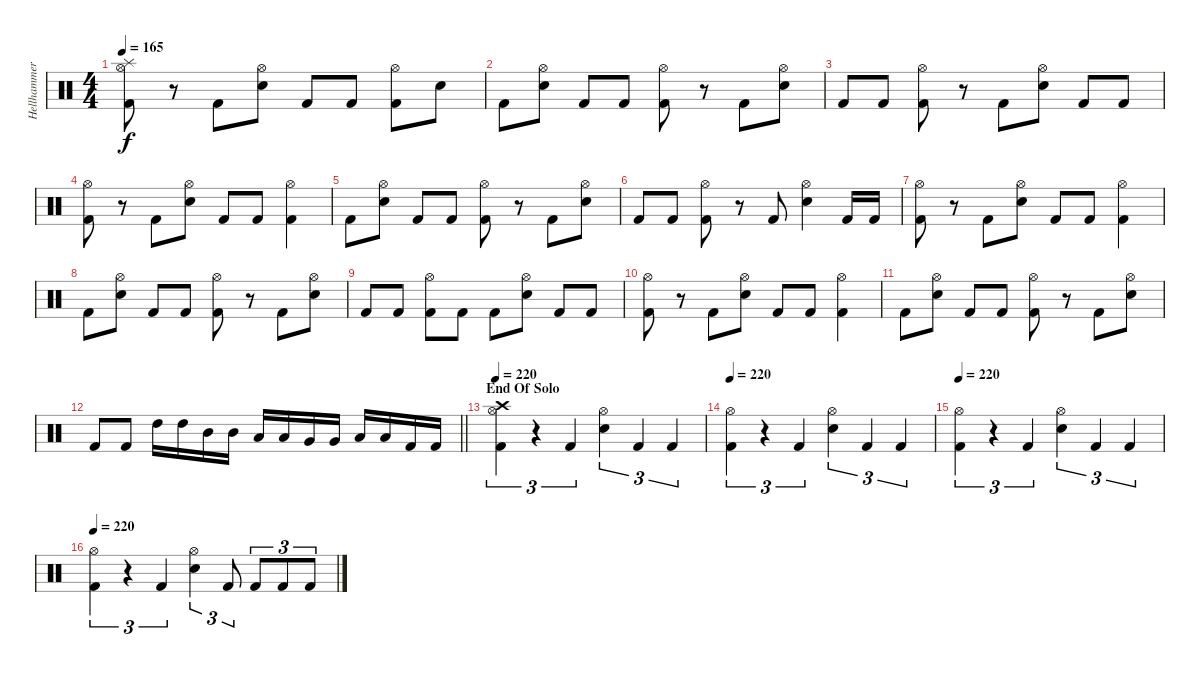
\track ("Hellhammer" "Hellhammer") {instrument percussion}
\staff {score}
\articulation defaults
\ts (4 4)
\tempo 165
\clef neutral
\ks c
("Splash (hit)" "Hi-Hat (open)" "Kick (hit) 2").8{dy f} r.8 "Kick (hit) 2".8 ("Hi-Hat (open)" "Snare (hit) 2").8 "Kick (hit) 2".8 "Kick (hit) 2".8 ("Hi-Hat (open)" "Kick (hit) 2").8 "Snare (hit)".8 |
"Kick (hit) 2".8 ("Hi-Hat (open)" "Snare (hit) 2").8 "Kick (hit) 2".8 "Kick (hit) 2".8 ("Hi-Hat (open)" "Kick (hit) 2").8 r.8 "Kick (hit) 2".8 ("Hi-Hat (open)" "Snare (hit) 2").8 |
"Kick (hit) 2".8 "Kick (hit) 2".8 ("Hi-Hat (open)" "Kick (hit) 2").8 r.8 "Kick (hit) 2".8 ("Hi-Hat (open)" "Snare (hit) 2").8 "Kick (hit) 2".8 "Kick (hit) 2".8 |
("Hi-Hat (open)" "Kick (hit) 2").8 r.8 "Kick (hit) 2".8 ("Hi-Hat (open)" "Snare (hit) 2").8 "Kick (hit) 2".8 "Kick (hit) 2".8 ("Hi-Hat (open)" "Kick (hit) 2").4 |
"Kick (hit) 2".8 ("Hi-Hat (open)" "Snare (hit) 2").8 "Kick (hit) 2".8 "Kick (hit) 2".8 ("Hi-Hat (open)" "Kick (hit) 2").8 r.8 "Kick (hit) 2".8 ("Hi-Hat (open)" "Snare (hit) 2").8 |
"Kick (hit) 2".8 "Kick (hit) 2".8 ("Hi-Hat (open)" "Kick (hit) 2").8 r.8 "Kick (hit) 2".8 ("Hi-Hat (open)" "Snare (hit) 2").4 "Kick (hit) 2".16 "Kick (hit) 2".16 |
("Hi-Hat (open)" "Kick (hit) 2").8 r.8 "Kick (hit) 2".8 ("Hi-Hat (open)" "Snare (hit) 2").8 "Kick (hit) 2".8 "Kick (hit) 2".8 ("Hi-Hat (open)" "Kick (hit) 2").4 |
"Kick (hit) 2".8 ("Hi-Hat (open)" "Snare (hit) 2").8 "Kick (hit) 2".8 "Kick (hit) 2".8 ("Hi-Hat (open)" "Kick (hit) 2").8 r.8 "Kick (hit) 2".8 ("Hi-Hat (open)" "Snare (hit) 2").8 |
"Kick (hit) 2".8 "Kick (hit) 2".8 ("Hi-Hat (open)" "Kick (hit) 2").8 "Kick (hit) 2".8 "Kick (hit) 2".8 ("Hi-Hat (open)" "Snare (hit) 2").8 "Kick (hit) 2".8 "Kick (hit) 2".8 |
("Hi-Hat (open)" "Kick (hit) 2").8 r.8 "Kick (hit) 2".8 ("Hi-Hat (open)" "Snare (hit) 2").8 "Kick (hit) 2".8 "Kick (hit) 2".8 ("Hi-Hat (open)" "Kick (hit) 2").4 |
"Kick (hit) 2".8 ("Hi-Hat (open)" "Snare (hit) 2").8 "Kick (hit) 2".8 "Kick (hit) 2".8 ("Hi-Hat (open)" "Kick (hit) 2").8 r.8 "Kick (hit) 2".8 ("Hi-Hat (open)" "Snare (hit) 2").8 |
\barLineRight lightlight "Kick (hit) 2".8 "Kick (hit) 2".8 "High Tom (hit)".16 "High Tom (hit)".16 "Mid Tom (hit)".16 "Mid Tom (hit)".16 "Low Tom (hit)".16 "Low Tom (hit)".16 "Very Low Tom (hit)".16 "Very Low Tom (hit)".16 "Low Floor Tom (hit)".16 "Low Floor Tom (hit)".16 "Kick (hit) 2".16 "Kick (hit) 2".16
|
\section ("" "End Of Solo")
\tempo 220
("Crash high (hit)" "Hi-Hat (open)" "Kick (hit) 2").4{tu (3 2)} r.4{tu (3 2)} "Kick (hit) 2".4{tu (3 2)} ("Hi-Hat (open)" "Snare (hit) 2").4{tu (3 2)} "Kick (hit) 2".4{tu (3 2)} "Kick (hit) 2".4{tu (3 2)} |
\tempo 220
("Hi-Hat (open)" "Kick (hit) 2").4{tu (3 2)} r.4{tu (3 2)} "Kick (hit) 2".4{tu (3 2)} ("Hi-Hat (open)" "Snare (hit) 2").4{tu (3 2)} "Kick (hit) 2".4{tu (3 2)} "Kick (hit) 2".4{tu (3 2)} |
\tempo 220
("Hi-Hat (open)" "Kick (hit) 2").4{tu (3 2)} r.4{tu (3 2)} "Kick (hit) 2".4{tu (3 2)} ("Hi-Hat (open)" "Snare (hit) 2").4{tu (3 2)} "Kick (hit) 2".4{tu (3 2)} "Kick (hit) 2".4{tu (3 2)} |
\tempo 220
("Hi-Hat (open)" "Kick (hit) 2").4{tu (3 2)} r.4{tu (3 2)} "Kick (hit) 2".4{tu (3 2)} ("Hi-Hat (open)" "Snare (hit) 2").4{tu (3 2)} "Kick (hit) 2".8{tu (3 2)} "Kick (hit) 2".8{tu (3 2)} "Kick (hit) 2".8{tu (3 2)} "Kick (hit) 2".8{tu (3 2)}
